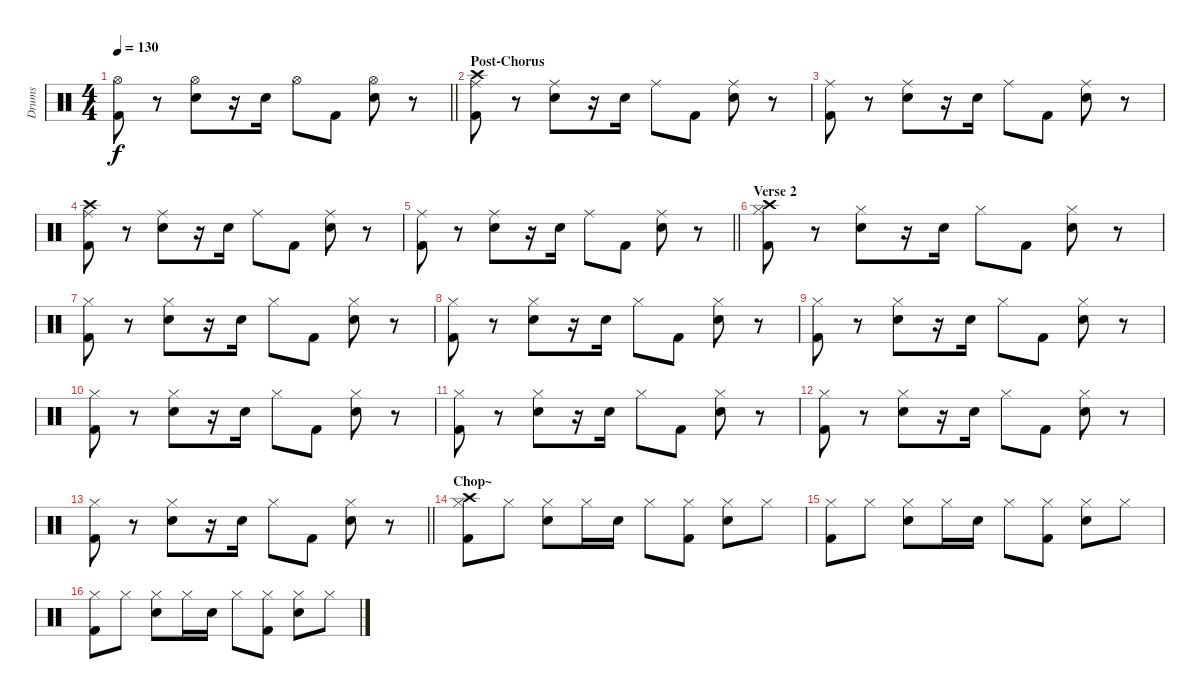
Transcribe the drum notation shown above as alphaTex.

\track ("Drums" "Drums") {instrument percussion}
\staff {score}
\articulation defaults
\ts (4 4)
\tempo 130
\clef neutral
\barLineRight lightlight
\ks c
("Hi-Hat (open)" "Kick (hit) 2").8{dy f} r.8 ("Hi-Hat (open)" "Snare (hit) 2").8 r.16 "Snare (hit) 2".16 "Hi-Hat (open)".8 "Kick (hit) 2".8 ("Hi-Hat (open)" "Snare (hit) 2").8 r.8 |
\section ("" "Post-Chorus")
("Crash high (hit)" "Ride (middle)" "Kick (hit) 2").8 r.8 ("Ride (middle)" "Snare (hit) 2").8 r.16 "Snare (hit) 2".16 "Ride (middle)".8 "Kick (hit) 2".8 ("Ride (middle)" "Snare (hit) 2").8 r.8 |
("Ride (middle)" "Kick (hit) 2").8 r.8 ("Ride (middle)" "Snare (hit) 2").8 r.16 "Snare (hit) 2".16 "Ride (middle)".8 "Kick (hit) 2".8 ("Ride (middle)" "Snare (hit) 2").8 r.8 |
("Crash high (hit)" "Ride (middle)" "Kick (hit) 2").8 r.8 ("Ride (middle)" "Snare (hit) 2").8 r.16 "Snare (hit) 2".16 "Ride (middle)".8 "Kick (hit) 2".8 ("Ride (middle)" "Snare (hit) 2").8 r.8 |
\barLineRight lightlight
("Ride (middle)" "Kick (hit) 2").8 r.8 ("Ride (middle)" "Snare (hit) 2").8 r.16 "Snare (hit) 2".16 "Ride (middle)".8 "Kick (hit) 2".8 ("Ride (middle)" "Snare (hit) 2").8 r.8 |
\section ("" "Verse 2")
("Crash high (hit)" "Hi-Hat (closed)" "Kick (hit) 2").8 r.8 ("Hi-Hat (closed)" "Snare (hit) 2").8 r.16 "Snare (hit) 2".16 "Hi-Hat (closed)".8 "Kick (hit) 2".8 ("Hi-Hat (closed)" "Snare (hit) 2").8 r.8 |
("Hi-Hat (closed)" "Kick (hit) 2").8 r.8 ("Hi-Hat (closed)" "Snare (hit) 2").8 r.16 "Snare (hit) 2".16 "Hi-Hat (closed)".8 "Kick (hit) 2".8 ("Hi-Hat (closed)" "Snare (hit) 2").8 r.8 |
("Hi-Hat (closed)" "Kick (hit) 2").8 r.8 ("Hi-Hat (closed)" "Snare (hit) 2").8 r.16 "Snare (hit) 2".16 "Hi-Hat (closed)".8 "Kick (hit) 2".8 ("Hi-Hat (closed)" "Snare (hit) 2").8 r.8 |
("Hi-Hat (closed)" "Kick (hit) 2").8 r.8 ("Hi-Hat (closed)" "Snare (hit) 2").8 r.16 "Snare (hit) 2".16 "Hi-Hat (closed)".8 "Kick (hit) 2".8 ("Hi-Hat (closed)" "Snare (hit) 2").8 r.8 |
("Hi-Hat (closed)" "Kick (hit) 2").8 r.8 ("Hi-Hat (closed)" "Snare (hit) 2").8 r.16 "Snare (hit) 2".16 "Hi-Hat (closed)".8 "Kick (hit) 2".8 ("Hi-Hat (closed)" "Snare (hit) 2").8 r.8 |
("Hi-Hat (closed)" "Kick (hit) 2").8 r.8 ("Hi-Hat (closed)" "Snare (hit) 2").8 r.16 "Snare (hit) 2".16 "Hi-Hat (closed)".8 "Kick (hit) 2".8 ("Hi-Hat (closed)" "Snare (hit) 2").8 r.8 |
("Hi-Hat (closed)" "Kick (hit) 2").8 r.8 ("Hi-Hat (closed)" "Snare (hit) 2").8 r.16 "Snare (hit) 2".16 "Hi-Hat (closed)".8 "Kick (hit) 2".8 ("Hi-Hat (closed)" "Snare (hit) 2").8 r.8 |
\barLineRight lightlight
("Hi-Hat (closed)" "Kick (hit) 2").8 r.8 ("Hi-Hat (closed)" "Snare (hit) 2").8 r.16 "Snare (hit) 2".16 "Hi-Hat (closed)".8 "Kick (hit) 2".8 ("Hi-Hat (closed)" "Snare (hit) 2").8 r.8 |
\section ("" "Chop~")
("Crash high (hit)" "Hi-Hat (closed)" "Kick (hit) 2").8 "Hi-Hat (closed)".8 ("Hi-Hat (closed)" "Snare (hit) 2").8 "Hi-Hat (closed)".16 "Snare (hit) 2".16 "Hi-Hat (closed)".8 ("Hi-Hat (closed)" "Kick (hit) 2").8 ("Hi-Hat (closed)" "Snare (hit) 2").8 "Hi-Hat (closed)".8 |
("Hi-Hat (closed)" "Kick (hit) 2").8 "Hi-Hat (closed)".8 ("Hi-Hat (closed)" "Snare (hit) 2").8 "Hi-Hat (closed)".16 "Snare (hit) 2".16 "Hi-Hat (closed)".8 ("Hi-Hat (closed)" "Kick (hit) 2").8 ("Hi-Hat (closed)" "Snare (hit) 2").8 "Hi-Hat (closed)".8 |
("Hi-Hat (closed)" "Kick (hit) 2").8 "Hi-Hat (closed)".8 ("Hi-Hat (closed)" "Snare (hit) 2").8 "Hi-Hat (closed)".16 "Snare (hit) 2".16 "Hi-Hat (closed)".8 ("Hi-Hat (closed)" "Kick (hit) 2").8 ("Hi-Hat (closed)" "Snare (hit) 2").8 "Hi-Hat (closed)".8
